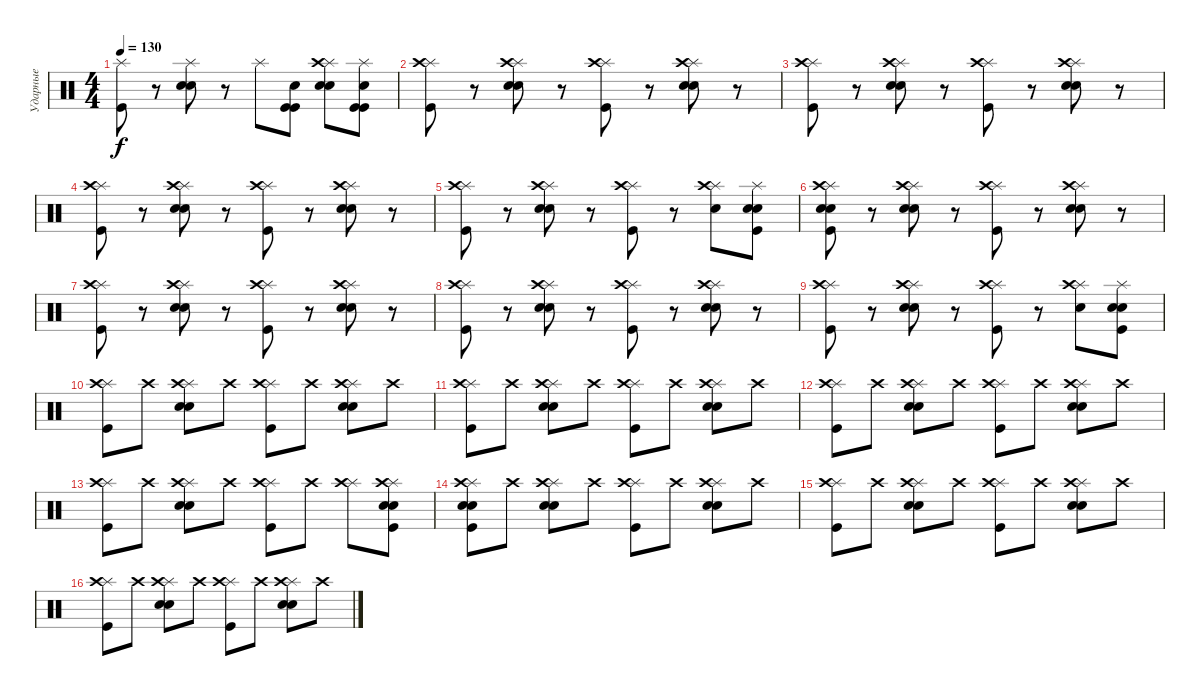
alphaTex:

\track ("Ударные" "Ударные") {instrument percussion}
\staff {score}
\articulation defaults
\ts (4 4)
\tempo 130
\clef neutral
\ks c
("Splash (hit)" "Kick (hit)").8{dy f} r.8 ("Splash (hit)" "Electric Snare (hit)" "Electric Snare (hit)").8 r.8 "Splash (hit)".8 ("Electric Snare (hit)" "Kick (hit)" "Kick (hit)").8 ("Splash (hit)" "Crash high (hit)" "Electric Snare (hit)" "Electric Snare (hit)").8 ("Splash (hit)" "Electric Snare (hit)" "Kick (hit)" "Kick (hit)").8 |
("Splash (hit)" "Crash high (hit)" "Kick (hit)").8 r.8 ("Splash (hit)" "Crash high (hit)" "Electric Snare (hit)" "Electric Snare (hit)").8 r.8 ("Splash (hit)" "Crash high (hit)" "Kick (hit)").8 r.8 ("Splash (hit)" "Crash high (hit)" "Electric Snare (hit)" "Electric Snare (hit)").8 r.8 |
("Splash (hit)" "Crash high (hit)" "Kick (hit)").8 r.8 ("Splash (hit)" "Crash high (hit)" "Electric Snare (hit)" "Electric Snare (hit)").8 r.8 ("Splash (hit)" "Crash high (hit)" "Kick (hit)").8 r.8 ("Splash (hit)" "Crash high (hit)" "Electric Snare (hit)" "Electric Snare (hit)").8 r.8 |
("Splash (hit)" "Crash high (hit)" "Kick (hit)").8 r.8 ("Splash (hit)" "Crash high (hit)" "Electric Snare (hit)" "Electric Snare (hit)").8 r.8 ("Splash (hit)" "Crash high (hit)" "Kick (hit)").8 r.8 ("Splash (hit)" "Crash high (hit)" "Electric Snare (hit)" "Electric Snare (hit)").8 r.8 |
("Splash (hit)" "Crash high (hit)" "Kick (hit)").8 r.8 ("Splash (hit)" "Crash high (hit)" "Electric Snare (hit)" "Electric Snare (hit)").8 r.8 ("Splash (hit)" "Crash high (hit)" "Kick (hit)").8 r.8 ("Splash (hit)" "Crash high (hit)" "Electric Snare (hit)").8 ("Splash (hit)" "Electric Snare (hit)" "Electric Snare (hit)" "Kick (hit)").8 |
("Splash (hit)" "Crash high (hit)" "Electric Snare (hit)" "Electric Snare (hit)" "Kick (hit)").8 r.8 ("Splash (hit)" "Crash high (hit)" "Electric Snare (hit)" "Electric Snare (hit)").8 r.8 ("Splash (hit)" "Crash high (hit)" "Kick (hit)").8 r.8 ("Splash (hit)" "Crash high (hit)" "Electric Snare (hit)" "Electric Snare (hit)").8 r.8 |
("Splash (hit)" "Crash high (hit)" "Kick (hit)").8 r.8 ("Splash (hit)" "Crash high (hit)" "Electric Snare (hit)" "Electric Snare (hit)").8 r.8 ("Splash (hit)" "Crash high (hit)" "Kick (hit)").8 r.8 ("Splash (hit)" "Crash high (hit)" "Electric Snare (hit)" "Electric Snare (hit)").8 r.8 |
("Splash (hit)" "Crash high (hit)" "Kick (hit)").8 r.8 ("Splash (hit)" "Crash high (hit)" "Electric Snare (hit)" "Electric Snare (hit)").8 r.8 ("Splash (hit)" "Crash high (hit)" "Kick (hit)").8 r.8 ("Splash (hit)" "Crash high (hit)" "Electric Snare (hit)" "Electric Snare (hit)").8 r.8 |
("Splash (hit)" "Crash high (hit)" "Kick (hit)").8 r.8 ("Splash (hit)" "Crash high (hit)" "Electric Snare (hit)" "Electric Snare (hit)").8 r.8 ("Splash (hit)" "Crash high (hit)" "Kick (hit)").8 r.8 ("Splash (hit)" "Crash high (hit)" "Electric Snare (hit)").8 ("Splash (hit)" "Electric Snare (hit)" "Electric Snare (hit)" "Kick (hit)").8 |
("Splash (hit)" "Crash high (hit)" "Kick (hit)").8 "Crash high (hit)".8 ("Splash (hit)" "Crash high (hit)" "Electric Snare (hit)" "Electric Snare (hit)").8 "Crash high (hit)".8 ("Splash (hit)" "Crash high (hit)" "Kick (hit)").8 "Crash high (hit)".8 ("Splash (hit)" "Crash high (hit)" "Electric Snare (hit)" "Electric Snare (hit)").8 "Crash high (hit)".8 |
("Splash (hit)" "Crash high (hit)" "Kick (hit)").8 "Crash high (hit)".8 ("Splash (hit)" "Crash high (hit)" "Electric Snare (hit)" "Electric Snare (hit)").8 "Crash high (hit)".8 ("Splash (hit)" "Crash high (hit)" "Kick (hit)").8 "Crash high (hit)".8 ("Splash (hit)" "Crash high (hit)" "Electric Snare (hit)" "Electric Snare (hit)").8 "Crash high (hit)".8 |
("Splash (hit)" "Crash high (hit)" "Kick (hit)").8 "Crash high (hit)".8 ("Splash (hit)" "Crash high (hit)" "Electric Snare (hit)" "Electric Snare (hit)").8 "Crash high (hit)".8 ("Splash (hit)" "Crash high (hit)" "Kick (hit)").8 "Crash high (hit)".8 ("Splash (hit)" "Crash high (hit)" "Electric Snare (hit)" "Electric Snare (hit)").8 "Crash high (hit)".8 |
("Splash (hit)" "Crash high (hit)" "Kick (hit)").8 "Crash high (hit)".8 ("Splash (hit)" "Crash high (hit)" "Electric Snare (hit)" "Electric Snare (hit)").8 "Crash high (hit)".8 ("Splash (hit)" "Crash high (hit)" "Kick (hit)").8 "Crash high (hit)".8 ("Splash (hit)" "Crash high (hit)").8 ("Splash (hit)" "Crash high (hit)" "Electric Snare (hit)" "Electric Snare (hit)" "Kick (hit)").8 |
("Splash (hit)" "Crash high (hit)" "Electric Snare (hit)" "Electric Snare (hit)" "Kick (hit)").8 "Crash high (hit)".8 ("Splash (hit)" "Crash high (hit)" "Electric Snare (hit)" "Electric Snare (hit)").8 "Crash high (hit)".8 ("Splash (hit)" "Crash high (hit)" "Kick (hit)").8 "Crash high (hit)".8 ("Splash (hit)" "Crash high (hit)" "Electric Snare (hit)" "Electric Snare (hit)").8 "Crash high (hit)".8 |
("Splash (hit)" "Crash high (hit)" "Kick (hit)").8 "Crash high (hit)".8 ("Splash (hit)" "Crash high (hit)" "Electric Snare (hit)" "Electric Snare (hit)").8 "Crash high (hit)".8 ("Splash (hit)" "Crash high (hit)" "Kick (hit)").8 "Crash high (hit)".8 ("Splash (hit)" "Crash high (hit)" "Electric Snare (hit)" "Electric Snare (hit)").8 "Crash high (hit)".8 |
("Splash (hit)" "Crash high (hit)" "Kick (hit)").8 "Crash high (hit)".8 ("Splash (hit)" "Crash high (hit)" "Electric Snare (hit)" "Electric Snare (hit)").8 "Crash high (hit)".8 ("Splash (hit)" "Crash high (hit)" "Kick (hit)").8 "Crash high (hit)".8 ("Splash (hit)" "Crash high (hit)" "Electric Snare (hit)" "Electric Snare (hit)").8 "Crash high (hit)".8
